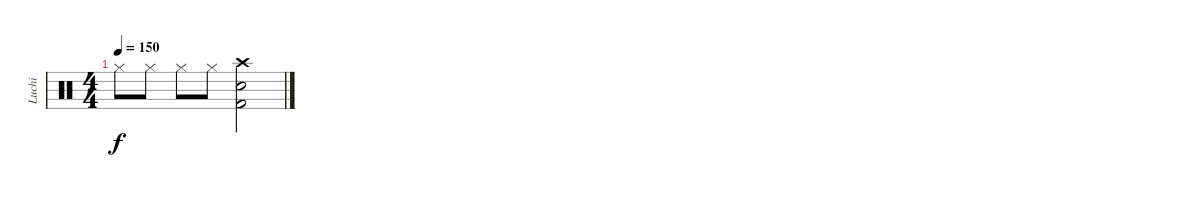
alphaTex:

\track ("Luchi" "Luchi") {instrument percussion}
\staff {score}
\articulation defaults
\ts (4 4)
\tempo 150
\clef neutral
\ks c "Hi-Hat (closed)".8{dy f} "Hi-Hat (closed)".8 "Hi-Hat (closed)".8 "Hi-Hat (closed)".8
("Snare (hit) 2" "Kick (hit) 2" "Crash high (hit)").2
